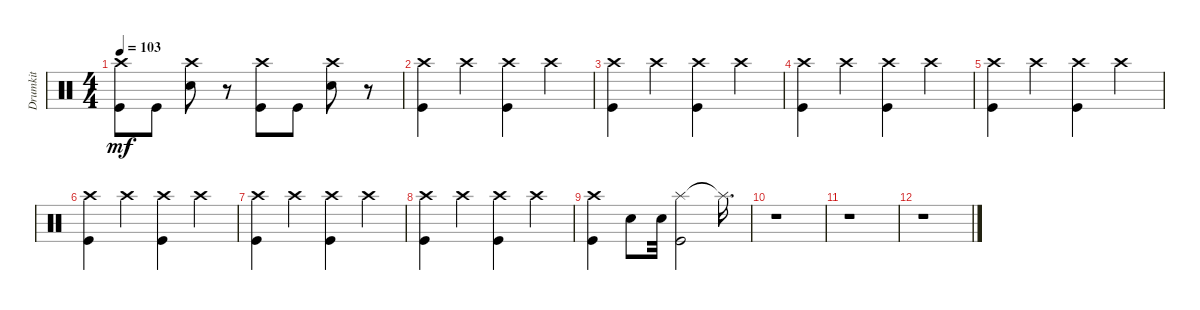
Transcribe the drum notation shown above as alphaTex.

\track ("Drumkit" "Drumkit") {instrument percussion}
\staff {score}
\articulation defaults
\ts (4 4)
\tempo 103
\clef neutral
\ks c
("Kick (hit)" "Crash high (hit)").8{dy mf} "Kick (hit)".8 ("Crash high (hit)" "Snare (hit) 2").8 r.8 ("Kick (hit)" "Crash high (hit)").8 "Kick (hit)".8 ("Crash high (hit)" "Snare (hit) 2").8 r.8 |
("Crash high (hit)" "Kick (hit)").4 "Crash high (hit)".4 ("Crash high (hit)" "Kick (hit)").4 "Crash high (hit)".4 |
("Crash high (hit)" "Kick (hit)").4 "Crash high (hit)".4 ("Crash high (hit)" "Kick (hit)").4 "Crash high (hit)".4 |
("Crash high (hit)" "Kick (hit)").4 "Crash high (hit)".4 ("Crash high (hit)" "Kick (hit)").4 "Crash high (hit)".4 |
("Crash high (hit)" "Kick (hit)").4 "Crash high (hit)".4 ("Crash high (hit)" "Kick (hit)").4 "Crash high (hit)".4 |
("Crash high (hit)" "Kick (hit)").4 "Crash high (hit)".4 ("Crash high (hit)" "Kick (hit)").4 "Crash high (hit)".4 |
("Crash high (hit)" "Kick (hit)").4 "Crash high (hit)".4 ("Crash high (hit)" "Kick (hit)").4 "Crash high (hit)".4 |
("Crash high (hit)" "Kick (hit)").4 "Crash high (hit)".4 ("Crash high (hit)" "Kick (hit)").4 "Crash high (hit)".4 |
("Crash high (hit)" "Kick (hit)").4 "Snare (hit) 2".8 "Snare (hit) 2".32 ("Splash (hit)" "Kick (hit)").2 "Splash (hit)"{t}.16{d} |
r.1 |
r.1 |
r.1
